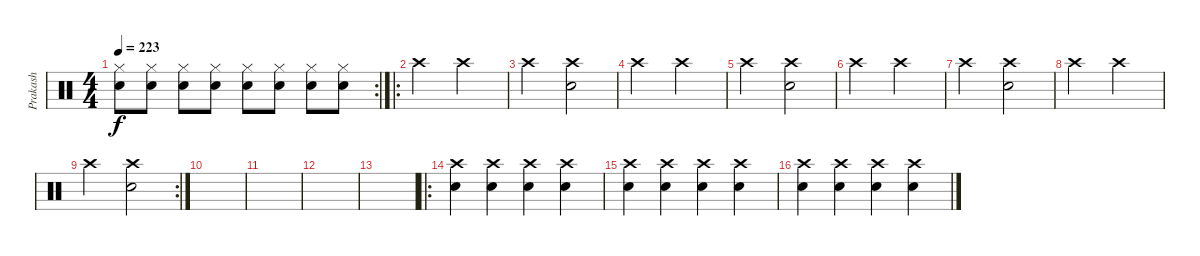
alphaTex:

\track ("Prakash" "Prakash") {instrument percussion}
\staff {score}
\articulation defaults
\rc 2
\ts (4 4)
\tempo 223
\clef neutral
\ks c
("Snare (hit) 2" "Hi-Hat (closed)").8{dy f} ("Snare (hit) 2" "Hi-Hat (closed)").8 ("Snare (hit) 2" "Hi-Hat (closed)").8 ("Snare (hit) 2" "Hi-Hat (closed)").8 ("Snare (hit) 2" "Hi-Hat (closed)").8 ("Snare (hit) 2" "Hi-Hat (closed)").8 ("Snare (hit) 2" "Hi-Hat (closed)").8 ("Snare (hit) 2" "Hi-Hat (closed)").8 |
\ro "Crash high (hit)".2 "Crash high (hit)".2
|
"Crash high (hit)".2 ("Snare (hit) 2" "Crash high (hit)").2 |
"Crash high (hit)".2 "Crash high (hit)".2 |
"Crash high (hit)".2 ("Snare (hit) 2" "Crash high (hit)").2 |
"Crash high (hit)".2 "Crash high (hit)".2 |
"Crash high (hit)".2 ("Snare (hit) 2" "Crash high (hit)").2 |
"Crash high (hit)".2 "Crash high (hit)".2 |
\rc 2 "Crash high (hit)".2
("Snare (hit) 2" "Crash high (hit)").2 |
|
|
|
|
\ro
("Snare (hit) 2" "Crash high (hit)").4 ("Snare (hit) 2" "Crash high (hit)").4 ("Snare (hit) 2" "Crash high (hit)").4 ("Snare (hit) 2" "Crash high (hit)").4 |
("Snare (hit) 2" "Crash high (hit)").4 ("Snare (hit) 2" "Crash high (hit)").4 ("Snare (hit) 2" "Crash high (hit)").4 ("Snare (hit) 2" "Crash high (hit)").4 |
("Snare (hit) 2" "Crash high (hit)").4 ("Snare (hit) 2" "Crash high (hit)").4 ("Snare (hit) 2" "Crash high (hit)").4 ("Snare (hit) 2" "Crash high (hit)").4
